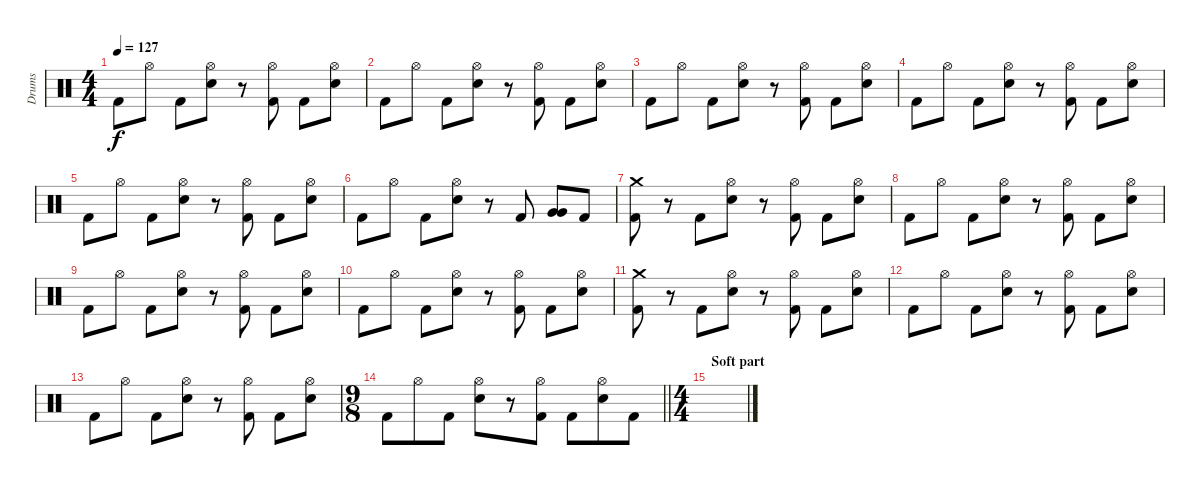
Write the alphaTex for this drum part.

\track ("Drums" "Drums") {instrument percussion}
\staff {score}
\articulation defaults
\ts (4 4)
\tempo 127
\clef neutral
\ks c "Kick (hit) 2".8{dy f} "Hi-Hat (open)".8 "Kick (hit) 2".8
("Hi-Hat (open)" "Electric Snare (hit)").8 r.8 ("Hi-Hat (open)" "Kick (hit) 2").8 "Kick (hit) 2".8 ("Hi-Hat (open)" "Electric Snare (hit)").8 |
"Kick (hit) 2".8 "Hi-Hat (open)".8 "Kick (hit) 2".8 ("Hi-Hat (open)" "Electric Snare (hit)").8 r.8 ("Hi-Hat (open)" "Kick (hit) 2").8 "Kick (hit) 2".8 ("Hi-Hat (open)" "Electric Snare (hit)").8 |
"Kick (hit) 2".8 "Hi-Hat (open)".8 "Kick (hit) 2".8 ("Hi-Hat (open)" "Electric Snare (hit)").8 r.8 ("Hi-Hat (open)" "Kick (hit) 2").8 "Kick (hit) 2".8 ("Hi-Hat (open)" "Electric Snare (hit)").8 |
"Kick (hit) 2".8 "Hi-Hat (open)".8 "Kick (hit) 2".8 ("Hi-Hat (open)" "Electric Snare (hit)").8 r.8 ("Hi-Hat (open)" "Kick (hit) 2").8 "Kick (hit) 2".8 ("Hi-Hat (open)" "Electric Snare (hit)").8 |
"Kick (hit) 2".8 "Hi-Hat (open)".8 "Kick (hit) 2".8 ("Hi-Hat (open)" "Electric Snare (hit)").8 r.8 ("Hi-Hat (open)" "Kick (hit) 2").8 "Kick (hit) 2".8 ("Hi-Hat (open)" "Electric Snare (hit)").8 |
"Kick (hit) 2".8 "Hi-Hat (open)".8 "Kick (hit) 2".8 ("Hi-Hat (open)" "Electric Snare (hit)").8 r.8 "Kick (hit) 2".8 ("Very Low Tom (hit)" "Very Low Tom (hit)").8 "Kick (hit) 2".8 |
("Crash medium (hit)" "Kick (hit) 2").8 r.8 "Kick (hit) 2".8 ("Hi-Hat (open)" "Electric Snare (hit)").8 r.8 ("Hi-Hat (open)" "Kick (hit) 2").8 "Kick (hit) 2".8 ("Hi-Hat (open)" "Electric Snare (hit)").8 |
"Kick (hit) 2".8 "Hi-Hat (open)".8 "Kick (hit) 2".8 ("Hi-Hat (open)" "Electric Snare (hit)").8 r.8 ("Hi-Hat (open)" "Kick (hit) 2").8 "Kick (hit) 2".8 ("Hi-Hat (open)" "Electric Snare (hit)").8 |
"Kick (hit) 2".8 "Hi-Hat (open)".8 "Kick (hit) 2".8 ("Hi-Hat (open)" "Electric Snare (hit)").8 r.8 ("Hi-Hat (open)" "Kick (hit) 2").8 "Kick (hit) 2".8 ("Hi-Hat (open)" "Electric Snare (hit)").8 |
"Kick (hit) 2".8 "Hi-Hat (open)".8 "Kick (hit) 2".8 ("Hi-Hat (open)" "Electric Snare (hit)").8 r.8 ("Hi-Hat (open)" "Kick (hit) 2").8 "Kick (hit) 2".8 ("Hi-Hat (open)" "Electric Snare (hit)").8 |
("Crash medium (hit)" "Kick (hit) 2").8 r.8 "Kick (hit) 2".8 ("Hi-Hat (open)" "Electric Snare (hit)").8 r.8 ("Hi-Hat (open)" "Kick (hit) 2").8 "Kick (hit) 2".8 ("Hi-Hat (open)" "Electric Snare (hit)").8 |
"Kick (hit) 2".8 "Hi-Hat (open)".8 "Kick (hit) 2".8 ("Hi-Hat (open)" "Electric Snare (hit)").8 r.8 ("Hi-Hat (open)" "Kick (hit) 2").8 "Kick (hit) 2".8 ("Hi-Hat (open)" "Electric Snare (hit)").8 |
"Kick (hit) 2".8 "Hi-Hat (open)".8 "Kick (hit) 2".8 ("Hi-Hat (open)" "Electric Snare (hit)").8 r.8 ("Hi-Hat (open)" "Kick (hit) 2").8 "Kick (hit) 2".8 ("Hi-Hat (open)" "Electric Snare (hit)").8 |
\ts (9 8)
\barLineRight lightlight "Kick (hit) 2".8 "Hi-Hat (open)".8 "Kick (hit) 2".8
("Hi-Hat (open)" "Electric Snare (hit)").8 r.8 ("Hi-Hat (open)" "Kick (hit) 2").8 "Kick (hit) 2".8 ("Hi-Hat (open)" "Electric Snare (hit)").8 "Kick (hit) 2".8 |
\ts (4 4)
\section ("" "Soft part")
